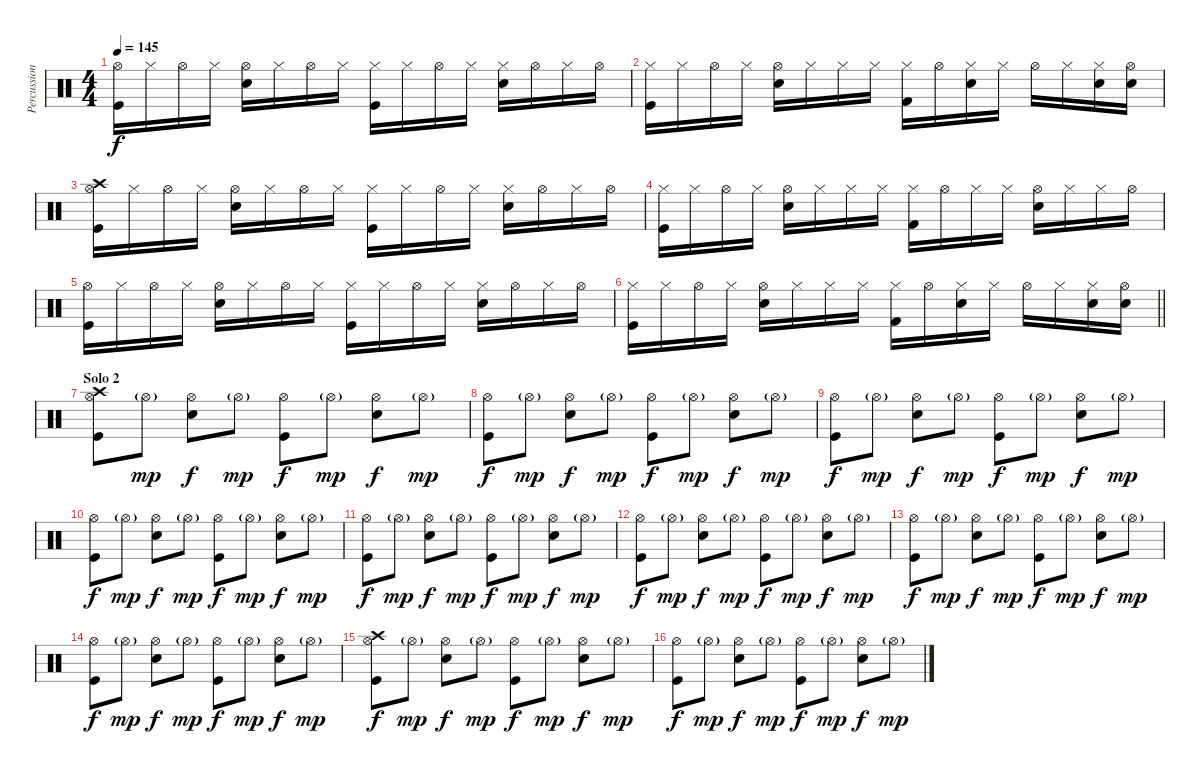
\track ("Percussion" "Percussion") {instrument percussion}
\staff {score}
\articulation defaults
\ts (4 4)
\tempo 145
\clef neutral
\ks c
("Hi-Hat (open)" "Kick (hit)").16{dy f} "Hi-Hat (closed)".16 "Hi-Hat (open)".16 "Hi-Hat (closed)".16 ("Hi-Hat (open)" "Snare (hit) 2").16 "Hi-Hat (closed)".16 "Hi-Hat (open)".16 "Hi-Hat (closed)".16 ("Hi-Hat (closed)" "Kick (hit)").16 "Hi-Hat (closed)".16 "Hi-Hat (open)".16 "Hi-Hat (closed)".16 ("Hi-Hat (closed)" "Snare (hit) 2").16 "Hi-Hat (open)".16 "Hi-Hat (closed)".16 "Hi-Hat (open)".16 |
("Hi-Hat (closed)" "Kick (hit)").16 "Hi-Hat (closed)".16 "Hi-Hat (open)".16 "Hi-Hat (closed)".16 ("Hi-Hat (open)" "Snare (hit) 2").16 "Hi-Hat (closed)".16 "Hi-Hat (closed)".16 "Hi-Hat (closed)".16 ("Hi-Hat (closed)" "Kick (hit) 2").16 "Hi-Hat (open)".16 ("Hi-Hat (closed)" "Snare (hit) 2").16 "Hi-Hat (closed)".16 "Hi-Hat (open)".16 "Hi-Hat (closed)".16 ("Hi-Hat (closed)" "Snare (hit) 2").16 ("Hi-Hat (open)" "Snare (hit) 2").16 |
("Hi-Hat (open)" "Kick (hit)" "Crash high (hit)").16 "Hi-Hat (closed)".16 "Hi-Hat (open)".16 "Hi-Hat (closed)".16 ("Hi-Hat (open)" "Snare (hit) 2").16 "Hi-Hat (closed)".16 "Hi-Hat (open)".16 "Hi-Hat (closed)".16 ("Hi-Hat (closed)" "Kick (hit)").16 "Hi-Hat (closed)".16 "Hi-Hat (open)".16 "Hi-Hat (closed)".16 ("Hi-Hat (closed)" "Snare (hit) 2").16 "Hi-Hat (open)".16 "Hi-Hat (closed)".16 "Hi-Hat (open)".16 |
("Hi-Hat (closed)" "Kick (hit)").16 "Hi-Hat (closed)".16 "Hi-Hat (open)".16 "Hi-Hat (closed)".16 ("Hi-Hat (open)" "Snare (hit) 2").16 "Hi-Hat (closed)".16 "Hi-Hat (closed)".16 "Hi-Hat (closed)".16 ("Hi-Hat (closed)" "Kick (hit) 2").16 "Hi-Hat (open)".16 "Hi-Hat (closed)".16 "Hi-Hat (closed)".16 ("Hi-Hat (open)" "Snare (hit) 2").16 "Hi-Hat (closed)".16 "Hi-Hat (closed)".16 "Hi-Hat (open)".16 |
("Hi-Hat (open)" "Kick (hit)").16 "Hi-Hat (closed)".16 "Hi-Hat (open)".16 "Hi-Hat (closed)".16 ("Hi-Hat (open)" "Snare (hit) 2").16 "Hi-Hat (closed)".16 "Hi-Hat (open)".16 "Hi-Hat (closed)".16 ("Hi-Hat (closed)" "Kick (hit)").16 "Hi-Hat (closed)".16 "Hi-Hat (open)".16 "Hi-Hat (closed)".16 ("Hi-Hat (closed)" "Snare (hit) 2").16 "Hi-Hat (open)".16 "Hi-Hat (closed)".16 "Hi-Hat (open)".16 |
\barLineRight lightlight
("Hi-Hat (closed)" "Kick (hit)").16 "Hi-Hat (closed)".16 "Hi-Hat (open)".16 "Hi-Hat (closed)".16 ("Hi-Hat (open)" "Snare (hit) 2").16 "Hi-Hat (closed)".16 "Hi-Hat (closed)".16 "Hi-Hat (closed)".16 ("Hi-Hat (closed)" "Kick (hit) 2").16 "Hi-Hat (open)".16 ("Hi-Hat (closed)" "Snare (hit) 2").16 "Hi-Hat (closed)".16 "Hi-Hat (open)".16 "Hi-Hat (closed)".16 ("Hi-Hat (closed)" "Snare (hit) 2").16 ("Hi-Hat (open)" "Snare (hit) 2").16 |
\section ("" "Solo 2")
("Hi-Hat (open)" "Kick (hit)" "Crash high (hit)").8 "Hi-Hat (open)"{g}.8{dy mp} ("Hi-Hat (open)" "Snare (hit) 2").8{dy f} "Hi-Hat (open)"{g}.8{dy mp} ("Hi-Hat (open)" "Kick (hit)").8{dy f} "Hi-Hat (open)"{g}.8{dy mp} ("Hi-Hat (open)" "Snare (hit) 2").8{dy f} "Hi-Hat (open)"{g}.8{dy mp} |
("Hi-Hat (open)" "Kick (hit)").8{dy f} "Hi-Hat (open)"{g}.8{dy mp} ("Hi-Hat (open)" "Snare (hit) 2").8{dy f} "Hi-Hat (open)"{g}.8{dy mp} ("Hi-Hat (open)" "Kick (hit)").8{dy f} "Hi-Hat (open)"{g}.8{dy mp} ("Hi-Hat (open)" "Snare (hit) 2").8{dy f} "Hi-Hat (open)"{g}.8{dy mp} |
("Hi-Hat (open)" "Kick (hit)").8{dy f} "Hi-Hat (open)"{g}.8{dy mp} ("Hi-Hat (open)" "Snare (hit) 2").8{dy f} "Hi-Hat (open)"{g}.8{dy mp} ("Hi-Hat (open)" "Kick (hit)").8{dy f} "Hi-Hat (open)"{g}.8{dy mp} ("Hi-Hat (open)" "Snare (hit) 2").8{dy f} "Hi-Hat (open)"{g}.8{dy mp} |
("Hi-Hat (open)" "Kick (hit)").8{dy f} "Hi-Hat (open)"{g}.8{dy mp} ("Hi-Hat (open)" "Snare (hit) 2").8{dy f} "Hi-Hat (open)"{g}.8{dy mp} ("Hi-Hat (open)" "Kick (hit)").8{dy f} "Hi-Hat (open)"{g}.8{dy mp} ("Hi-Hat (open)" "Snare (hit) 2").8{dy f} "Hi-Hat (open)"{g}.8{dy mp} |
("Hi-Hat (open)" "Kick (hit)").8{dy f} "Hi-Hat (open)"{g}.8{dy mp} ("Hi-Hat (open)" "Snare (hit) 2").8{dy f} "Hi-Hat (open)"{g}.8{dy mp} ("Hi-Hat (open)" "Kick (hit)").8{dy f} "Hi-Hat (open)"{g}.8{dy mp} ("Hi-Hat (open)" "Snare (hit) 2").8{dy f} "Hi-Hat (open)"{g}.8{dy mp} |
("Hi-Hat (open)" "Kick (hit)").8{dy f} "Hi-Hat (open)"{g}.8{dy mp} ("Hi-Hat (open)" "Snare (hit) 2").8{dy f} "Hi-Hat (open)"{g}.8{dy mp} ("Hi-Hat (open)" "Kick (hit)").8{dy f} "Hi-Hat (open)"{g}.8{dy mp} ("Hi-Hat (open)" "Snare (hit) 2").8{dy f} "Hi-Hat (open)"{g}.8{dy mp} |
("Hi-Hat (open)" "Kick (hit)").8{dy f} "Hi-Hat (open)"{g}.8{dy mp} ("Hi-Hat (open)" "Snare (hit) 2").8{dy f} "Hi-Hat (open)"{g}.8{dy mp} ("Hi-Hat (open)" "Kick (hit)").8{dy f} "Hi-Hat (open)"{g}.8{dy mp} ("Hi-Hat (open)" "Snare (hit) 2").8{dy f} "Hi-Hat (open)"{g}.8{dy mp} |
("Hi-Hat (open)" "Kick (hit)").8{dy f} "Hi-Hat (open)"{g}.8{dy mp} ("Hi-Hat (open)" "Snare (hit) 2").8{dy f} "Hi-Hat (open)"{g}.8{dy mp} ("Hi-Hat (open)" "Kick (hit)").8{dy f} "Hi-Hat (open)"{g}.8{dy mp} ("Hi-Hat (open)" "Snare (hit) 2").8{dy f} "Hi-Hat (open)"{g}.8{dy mp} |
("Hi-Hat (open)" "Kick (hit)" "Crash high (hit)").8{dy f} "Hi-Hat (open)"{g}.8{dy mp} ("Hi-Hat (open)" "Snare (hit) 2").8{dy f} "Hi-Hat (open)"{g}.8{dy mp} ("Hi-Hat (open)" "Kick (hit)").8{dy f} "Hi-Hat (open)"{g}.8{dy mp} ("Hi-Hat (open)" "Snare (hit) 2").8{dy f} "Hi-Hat (open)"{g}.8{dy mp} |
("Hi-Hat (open)" "Kick (hit)").8{dy f} "Hi-Hat (open)"{g}.8{dy mp} ("Hi-Hat (open)" "Snare (hit) 2").8{dy f} "Hi-Hat (open)"{g}.8{dy mp} ("Hi-Hat (open)" "Kick (hit)").8{dy f} "Hi-Hat (open)"{g}.8{dy mp} ("Hi-Hat (open)" "Snare (hit) 2").8{dy f} "Hi-Hat (open)"{g}.8{dy mp}
